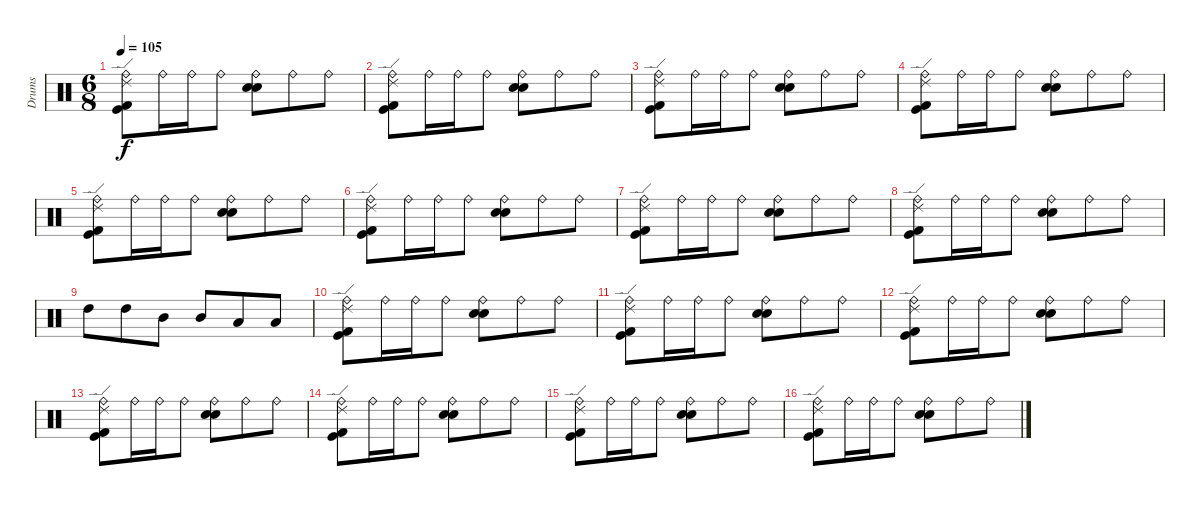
\track ("Drums" "Drums") {instrument percussion}
\staff {score}
\articulation defaults
\ts (6 8)
\tempo 105
\clef neutral
\ks c
("Ride (bell)" "Ride (edge) 2" "Kick (hit) 2" "Kick (hit)").8{dy f} "Ride (bell)".16 "Ride (bell)".16 "Ride (bell)".8 ("Ride (bell)" "Snare (hit) 2" "Electric Snare (hit)").8 "Ride (bell)".8 "Ride (bell)".8 |
("Ride (bell)" "Ride (edge) 2" "Kick (hit) 2" "Kick (hit)").8 "Ride (bell)".16 "Ride (bell)".16 "Ride (bell)".8 ("Ride (bell)" "Snare (hit) 2" "Electric Snare (hit)").8 "Ride (bell)".8 "Ride (bell)".8 |
("Ride (bell)" "Ride (edge) 2" "Kick (hit) 2" "Kick (hit)").8 "Ride (bell)".16 "Ride (bell)".16 "Ride (bell)".8 ("Ride (bell)" "Snare (hit) 2" "Electric Snare (hit)").8 "Ride (bell)".8 "Ride (bell)".8 |
("Ride (bell)" "Ride (edge) 2" "Kick (hit) 2" "Kick (hit)").8 "Ride (bell)".16 "Ride (bell)".16 "Ride (bell)".8 ("Ride (bell)" "Snare (hit) 2" "Electric Snare (hit)").8 "Ride (bell)".8 "Ride (bell)".8 |
("Ride (bell)" "Ride (edge) 2" "Kick (hit) 2" "Kick (hit)").8 "Ride (bell)".16 "Ride (bell)".16 "Ride (bell)".8 ("Ride (bell)" "Snare (hit) 2" "Electric Snare (hit)").8 "Ride (bell)".8 "Ride (bell)".8 |
("Ride (bell)" "Ride (edge) 2" "Kick (hit) 2" "Kick (hit)").8 "Ride (bell)".16 "Ride (bell)".16 "Ride (bell)".8 ("Ride (bell)" "Snare (hit) 2" "Electric Snare (hit)").8 "Ride (bell)".8 "Ride (bell)".8 |
("Ride (bell)" "Ride (edge) 2" "Kick (hit) 2" "Kick (hit)").8 "Ride (bell)".16 "Ride (bell)".16 "Ride (bell)".8 ("Ride (bell)" "Snare (hit) 2" "Electric Snare (hit)").8 "Ride (bell)".8 "Ride (bell)".8 |
("Ride (bell)" "Ride (edge) 2" "Kick (hit) 2" "Kick (hit)").8 "Ride (bell)".16 "Ride (bell)".16 "Ride (bell)".8 ("Ride (bell)" "Snare (hit) 2" "Electric Snare (hit)").8 "Ride (bell)".8 "Ride (bell)".8 |
"High Tom (hit)".8{volume 16 balance 0} "High Tom (hit)".8 "Mid Tom (hit)".8 "Mid Tom (hit)".8{balance 16} "Low Floor Tom (hit)".8 "Low Floor Tom (hit)".8 |
("Ride (bell)" "Ride (edge) 2" "Kick (hit) 2" "Kick (hit)").8{volume 13 balance 8} "Ride (bell)".16 "Ride (bell)".16 "Ride (bell)".8 ("Ride (bell)" "Snare (hit) 2" "Electric Snare (hit)").8 "Ride (bell)".8 "Ride (bell)".8 |
("Ride (bell)" "Ride (edge) 2" "Kick (hit) 2" "Kick (hit)").8 "Ride (bell)".16 "Ride (bell)".16 "Ride (bell)".8 ("Ride (bell)" "Snare (hit) 2" "Electric Snare (hit)").8 "Ride (bell)".8 "Ride (bell)".8 |
("Ride (bell)" "Ride (edge) 2" "Kick (hit) 2" "Kick (hit)").8 "Ride (bell)".16 "Ride (bell)".16 "Ride (bell)".8 ("Ride (bell)" "Snare (hit) 2" "Electric Snare (hit)").8 "Ride (bell)".8 "Ride (bell)".8 |
("Ride (bell)" "Ride (edge) 2" "Kick (hit) 2" "Kick (hit)").8 "Ride (bell)".16 "Ride (bell)".16 "Ride (bell)".8 ("Ride (bell)" "Snare (hit) 2" "Electric Snare (hit)").8 "Ride (bell)".8 "Ride (bell)".8 |
("Ride (bell)" "Ride (edge) 2" "Kick (hit) 2" "Kick (hit)").8 "Ride (bell)".16 "Ride (bell)".16 "Ride (bell)".8 ("Ride (bell)" "Snare (hit) 2" "Electric Snare (hit)").8 "Ride (bell)".8 "Ride (bell)".8 |
("Ride (bell)" "Ride (edge) 2" "Kick (hit) 2" "Kick (hit)").8 "Ride (bell)".16 "Ride (bell)".16 "Ride (bell)".8 ("Ride (bell)" "Snare (hit) 2" "Electric Snare (hit)").8 "Ride (bell)".8 "Ride (bell)".8 |
("Ride (bell)" "Ride (edge) 2" "Kick (hit) 2" "Kick (hit)").8 "Ride (bell)".16 "Ride (bell)".16 "Ride (bell)".8 ("Ride (bell)" "Snare (hit) 2" "Electric Snare (hit)").8 "Ride (bell)".8 "Ride (bell)".8
